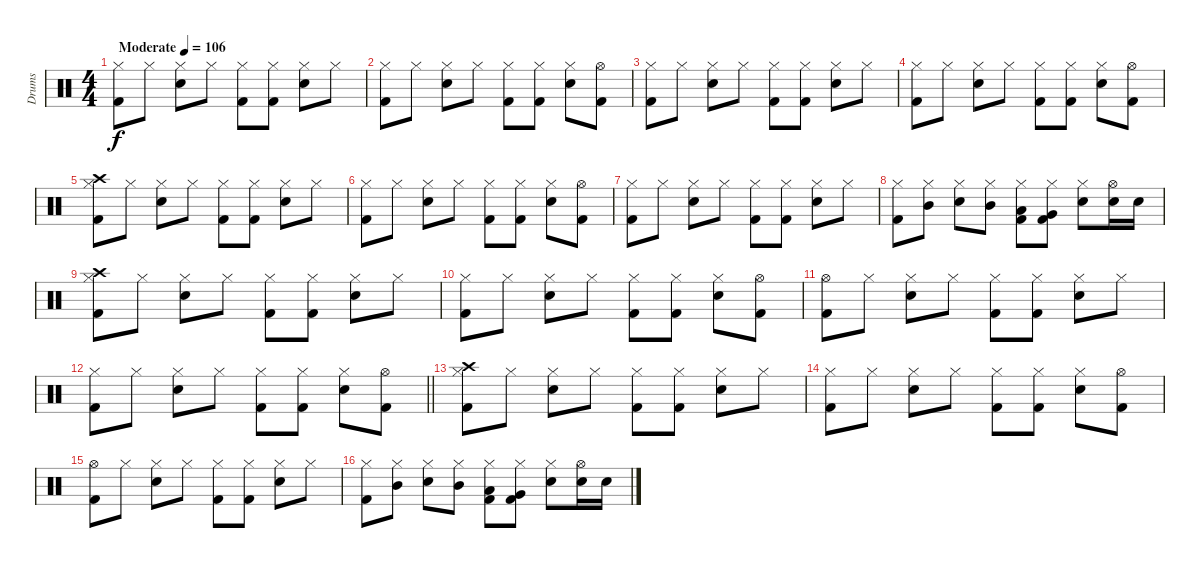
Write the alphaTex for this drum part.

\track ("Drums" "Drums") {instrument percussion}
\staff
\articulation defaults
\ts (4 4)
\tempo (106 "Moderate")
\clef neutral
\ks c
("Hi-Hat (closed)" "Kick (hit) 2").8{dy f} "Hi-Hat (closed)".8 ("Snare (hit) 2" "Hi-Hat (closed)").8 "Hi-Hat (closed)".8 ("Hi-Hat (closed)" "Kick (hit) 2").8 ("Hi-Hat (closed)" "Kick (hit) 2").8 ("Snare (hit) 2" "Hi-Hat (closed)").8 "Hi-Hat (closed)".8 |
("Hi-Hat (closed)" "Kick (hit) 2").8 "Hi-Hat (closed)".8 ("Snare (hit) 2" "Hi-Hat (closed)").8 "Hi-Hat (closed)".8 ("Hi-Hat (closed)" "Kick (hit) 2").8 ("Hi-Hat (closed)" "Kick (hit) 2").8 ("Snare (hit) 2" "Hi-Hat (closed)").8 ("Hi-Hat (open)" "Kick (hit) 2").8 |
("Hi-Hat (closed)" "Kick (hit) 2").8 "Hi-Hat (closed)".8 ("Snare (hit) 2" "Hi-Hat (closed)").8 "Hi-Hat (closed)".8 ("Hi-Hat (closed)" "Kick (hit) 2").8 ("Hi-Hat (closed)" "Kick (hit) 2").8 ("Snare (hit) 2" "Hi-Hat (closed)").8 "Hi-Hat (closed)".8 |
("Hi-Hat (closed)" "Kick (hit) 2").8 "Hi-Hat (closed)".8 ("Snare (hit) 2" "Hi-Hat (closed)").8 "Hi-Hat (closed)".8 ("Hi-Hat (closed)" "Kick (hit) 2").8 ("Hi-Hat (closed)" "Kick (hit) 2").8 ("Snare (hit) 2" "Hi-Hat (closed)").8 ("Hi-Hat (open)" "Kick (hit) 2").8 |
("Hi-Hat (closed)" "Crash high (hit)" "Kick (hit) 2").8 "Hi-Hat (closed)".8 ("Snare (hit) 2" "Hi-Hat (closed)").8 "Hi-Hat (closed)".8 ("Hi-Hat (closed)" "Kick (hit) 2").8 ("Hi-Hat (closed)" "Kick (hit) 2").8 ("Snare (hit) 2" "Hi-Hat (closed)").8 "Hi-Hat (closed)".8 |
("Hi-Hat (closed)" "Kick (hit) 2").8 "Hi-Hat (closed)".8 ("Snare (hit) 2" "Hi-Hat (closed)").8 "Hi-Hat (closed)".8 ("Hi-Hat (closed)" "Kick (hit) 2").8 ("Hi-Hat (closed)" "Kick (hit) 2").8 ("Snare (hit) 2" "Hi-Hat (closed)").8 ("Hi-Hat (open)" "Kick (hit) 2").8 |
("Hi-Hat (closed)" "Kick (hit) 2").8 "Hi-Hat (closed)".8 ("Snare (hit) 2" "Hi-Hat (closed)").8 "Hi-Hat (closed)".8 ("Hi-Hat (closed)" "Kick (hit) 2").8 ("Hi-Hat (closed)" "Kick (hit) 2").8 ("Snare (hit) 2" "Hi-Hat (closed)").8 "Hi-Hat (closed)".8 |
("Hi-Hat (closed)" "Kick (hit) 2").8 ("Hi-Hat (closed)" "Mid Tom (hit)").8 ("Snare (hit) 2" "Hi-Hat (closed)").8 ("Hi-Hat (closed)" "Mid Tom (hit)").8 ("Hi-Hat (closed)" "Low Tom (hit)" "Kick (hit) 2").8 ("Hi-Hat (closed)" "Very Low Tom (hit)" "Kick (hit) 2").8 ("Snare (hit) 2" "Hi-Hat (closed)").8 ("Snare (hit) 2" "Hi-Hat (open)").16 "Snare (hit) 2".16 |
("Hi-Hat (closed)" "Crash high (hit)" "Kick (hit) 2").8 "Hi-Hat (closed)".8 ("Snare (hit) 2" "Hi-Hat (closed)").8 "Hi-Hat (closed)".8 ("Hi-Hat (closed)" "Kick (hit) 2").8 ("Hi-Hat (closed)" "Kick (hit) 2").8 ("Snare (hit) 2" "Hi-Hat (closed)").8 "Hi-Hat (closed)".8 |
("Hi-Hat (closed)" "Kick (hit) 2").8 "Hi-Hat (closed)".8 ("Snare (hit) 2" "Hi-Hat (closed)").8 "Hi-Hat (closed)".8 ("Hi-Hat (closed)" "Kick (hit) 2").8 ("Hi-Hat (closed)" "Kick (hit) 2").8 ("Snare (hit) 2" "Hi-Hat (closed)").8 ("Hi-Hat (open)" "Kick (hit) 2").8 |
("Hi-Hat (open)" "Kick (hit) 2").8 "Hi-Hat (closed)".8 ("Snare (hit) 2" "Hi-Hat (closed)").8 "Hi-Hat (closed)".8 ("Hi-Hat (closed)" "Kick (hit) 2").8 ("Hi-Hat (closed)" "Kick (hit) 2").8 ("Snare (hit) 2" "Hi-Hat (closed)").8 "Hi-Hat (closed)".8 |
\barLineRight lightlight
("Hi-Hat (closed)" "Kick (hit) 2").8 "Hi-Hat (closed)".8 ("Snare (hit) 2" "Hi-Hat (closed)").8 "Hi-Hat (closed)".8 ("Hi-Hat (closed)" "Kick (hit) 2").8 ("Hi-Hat (closed)" "Kick (hit) 2").8 ("Snare (hit) 2" "Hi-Hat (closed)").8 ("Hi-Hat (open)" "Kick (hit) 2").8 |
("Hi-Hat (closed)" "Crash high (hit)" "Kick (hit) 2").8 "Hi-Hat (closed)".8 ("Snare (hit) 2" "Hi-Hat (closed)").8 "Hi-Hat (closed)".8 ("Hi-Hat (closed)" "Kick (hit) 2").8 ("Hi-Hat (closed)" "Kick (hit) 2").8 ("Snare (hit) 2" "Hi-Hat (closed)").8 "Hi-Hat (closed)".8 |
("Hi-Hat (closed)" "Kick (hit) 2").8 "Hi-Hat (closed)".8 ("Snare (hit) 2" "Hi-Hat (closed)").8 "Hi-Hat (closed)".8 ("Hi-Hat (closed)" "Kick (hit) 2").8 ("Hi-Hat (closed)" "Kick (hit) 2").8 ("Snare (hit) 2" "Hi-Hat (closed)").8 ("Hi-Hat (open)" "Kick (hit) 2").8 |
("Hi-Hat (open)" "Kick (hit) 2").8 "Hi-Hat (closed)".8 ("Snare (hit) 2" "Hi-Hat (closed)").8 "Hi-Hat (closed)".8 ("Hi-Hat (closed)" "Kick (hit) 2").8 ("Hi-Hat (closed)" "Kick (hit) 2").8 ("Snare (hit) 2" "Hi-Hat (closed)").8 "Hi-Hat (closed)".8 |
("Hi-Hat (closed)" "Kick (hit) 2").8 ("Hi-Hat (closed)" "Mid Tom (hit)").8 ("Snare (hit) 2" "Hi-Hat (closed)").8 ("Hi-Hat (closed)" "Mid Tom (hit)").8 ("Hi-Hat (closed)" "Low Tom (hit)" "Kick (hit) 2").8 ("Hi-Hat (closed)" "Very Low Tom (hit)" "Kick (hit) 2").8 ("Snare (hit) 2" "Hi-Hat (closed)").8 ("Snare (hit) 2" "Hi-Hat (open)").16 "Snare (hit) 2".16
